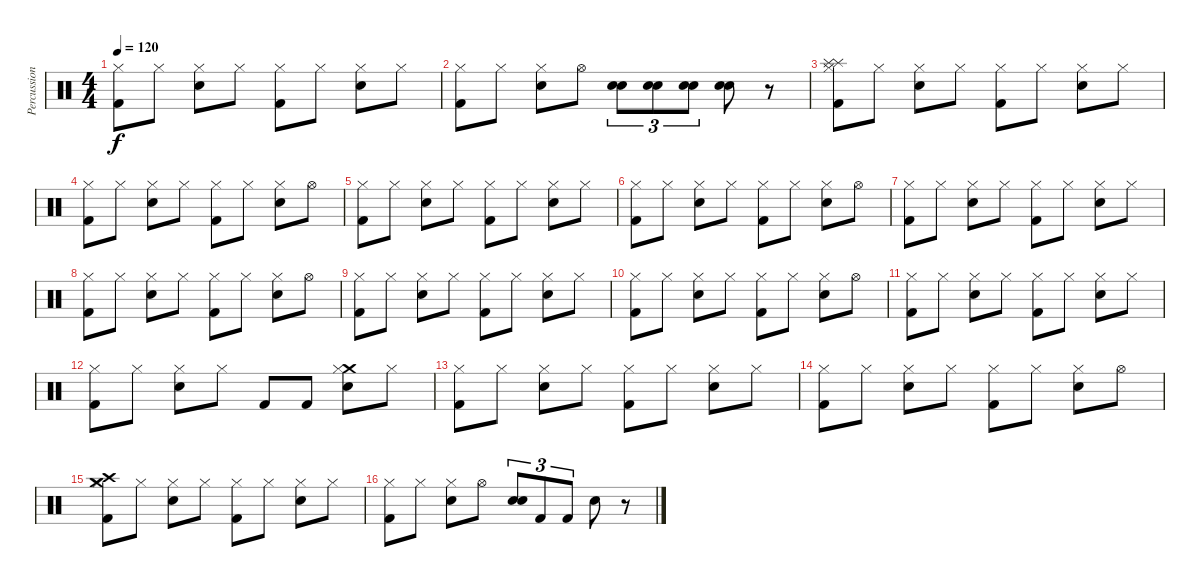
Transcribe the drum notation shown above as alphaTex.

\track ("Percussion" "Percussion") {instrument percussion}
\staff {score}
\articulation defaults
\ts (4 4)
\tempo 120
\clef neutral
\ks c
("Kick (hit) 2" "Hi-Hat (closed)").8{dy f} "Hi-Hat (closed)".8 ("Electric Snare (hit)" "Hi-Hat (closed)").8 "Hi-Hat (closed)".8 ("Kick (hit) 2" "Hi-Hat (closed)").8 "Hi-Hat (closed)".8 ("Electric Snare (hit)" "Hi-Hat (closed)").8 "Hi-Hat (closed)".8 |
("Kick (hit) 2" "Hi-Hat (closed)").8 "Hi-Hat (closed)".8 ("Electric Snare (hit)" "Hi-Hat (closed)").8 "Hi-Hat (open)".8 ("Electric Snare (hit)" "Electric Snare (hit)").8{tu (3 2)} ("Electric Snare (hit)" "Electric Snare (hit)").8{tu (3 2)} ("Electric Snare (hit)" "Electric Snare (hit)").8{tu (3 2)} ("Electric Snare (hit)" "Electric Snare (hit)").8 r.8 |
("Splash (hit)" "Splash (hit)" "Kick (hit) 2" "Hi-Hat (closed)").8 "Hi-Hat (closed)".8 ("Electric Snare (hit)" "Hi-Hat (closed)").8 "Hi-Hat (closed)".8 ("Kick (hit) 2" "Hi-Hat (closed)").8 "Hi-Hat (closed)".8 ("Electric Snare (hit)" "Hi-Hat (closed)").8 "Hi-Hat (closed)".8 |
("Kick (hit) 2" "Hi-Hat (closed)").8 "Hi-Hat (closed)".8 ("Electric Snare (hit)" "Hi-Hat (closed)").8 "Hi-Hat (closed)".8 ("Kick (hit) 2" "Hi-Hat (closed)").8 "Hi-Hat (closed)".8 ("Electric Snare (hit)" "Hi-Hat (closed)").8 "Hi-Hat (open)".8 |
("Kick (hit) 2" "Hi-Hat (closed)").8 "Hi-Hat (closed)".8 ("Electric Snare (hit)" "Hi-Hat (closed)").8 "Hi-Hat (closed)".8 ("Kick (hit) 2" "Hi-Hat (closed)").8 "Hi-Hat (closed)".8 ("Electric Snare (hit)" "Hi-Hat (closed)").8 "Hi-Hat (closed)".8 |
("Kick (hit) 2" "Hi-Hat (closed)").8 "Hi-Hat (closed)".8 ("Electric Snare (hit)" "Hi-Hat (closed)").8 "Hi-Hat (closed)".8 ("Kick (hit) 2" "Hi-Hat (closed)").8 "Hi-Hat (closed)".8 ("Electric Snare (hit)" "Hi-Hat (closed)").8 "Hi-Hat (open)".8 |
("Kick (hit) 2" "Hi-Hat (closed)").8 "Hi-Hat (closed)".8 ("Electric Snare (hit)" "Hi-Hat (closed)").8 "Hi-Hat (closed)".8 ("Kick (hit) 2" "Hi-Hat (closed)").8 "Hi-Hat (closed)".8 ("Electric Snare (hit)" "Hi-Hat (closed)").8 "Hi-Hat (closed)".8 |
("Kick (hit) 2" "Hi-Hat (closed)").8 "Hi-Hat (closed)".8 ("Electric Snare (hit)" "Hi-Hat (closed)").8 "Hi-Hat (closed)".8 ("Kick (hit) 2" "Hi-Hat (closed)").8 "Hi-Hat (closed)".8 ("Electric Snare (hit)" "Hi-Hat (closed)").8 "Hi-Hat (open)".8 |
("Kick (hit) 2" "Hi-Hat (closed)").8 "Hi-Hat (closed)".8 ("Electric Snare (hit)" "Hi-Hat (closed)").8 "Hi-Hat (closed)".8 ("Kick (hit) 2" "Hi-Hat (closed)").8 "Hi-Hat (closed)".8 ("Electric Snare (hit)" "Hi-Hat (closed)").8 "Hi-Hat (closed)".8 |
("Kick (hit) 2" "Hi-Hat (closed)").8 "Hi-Hat (closed)".8 ("Electric Snare (hit)" "Hi-Hat (closed)").8 "Hi-Hat (closed)".8 ("Kick (hit) 2" "Hi-Hat (closed)").8 "Hi-Hat (closed)".8 ("Electric Snare (hit)" "Hi-Hat (closed)").8 "Hi-Hat (open)".8 |
("Kick (hit) 2" "Hi-Hat (closed)").8 "Hi-Hat (closed)".8 ("Electric Snare (hit)" "Hi-Hat (closed)").8 "Hi-Hat (closed)".8 ("Kick (hit) 2" "Hi-Hat (closed)").8 "Hi-Hat (closed)".8 ("Electric Snare (hit)" "Hi-Hat (closed)").8 "Hi-Hat (closed)".8 |
("Kick (hit) 2" "Hi-Hat (closed)").8 "Hi-Hat (closed)".8 ("Electric Snare (hit)" "Hi-Hat (closed)").8 "Hi-Hat (closed)".8 "Kick (hit) 2".8 "Kick (hit) 2".8 ("Crash medium (hit)" "Electric Snare (hit)" "Hi-Hat (closed)").8 "Hi-Hat (closed)".8 |
("Kick (hit) 2" "Hi-Hat (closed)").8 "Hi-Hat (closed)".8 ("Electric Snare (hit)" "Hi-Hat (closed)").8 "Hi-Hat (closed)".8 ("Kick (hit) 2" "Hi-Hat (closed)").8 "Hi-Hat (closed)".8 ("Electric Snare (hit)" "Hi-Hat (closed)").8 "Hi-Hat (closed)".8 |
("Kick (hit) 2" "Hi-Hat (closed)").8 "Hi-Hat (closed)".8 ("Electric Snare (hit)" "Hi-Hat (closed)").8 "Hi-Hat (closed)".8 ("Kick (hit) 2" "Hi-Hat (closed)").8 "Hi-Hat (closed)".8 ("Electric Snare (hit)" "Hi-Hat (closed)").8 "Hi-Hat (open)".8 |
("Crash high (hit)" "Crash medium (hit)" "Kick (hit) 2" "Hi-Hat (closed)").8 "Hi-Hat (closed)".8 ("Electric Snare (hit)" "Hi-Hat (closed)").8 "Hi-Hat (closed)".8 ("Kick (hit) 2" "Hi-Hat (closed)").8 "Hi-Hat (closed)".8 ("Electric Snare (hit)" "Hi-Hat (closed)").8 "Hi-Hat (closed)".8 |
("Kick (hit) 2" "Hi-Hat (closed)").8 "Hi-Hat (closed)".8 ("Electric Snare (hit)" "Hi-Hat (closed)").8 "Hi-Hat (open)".8 ("Electric Snare (hit)" "Electric Snare (hit)").8{tu (3 2)} "Kick (hit) 2".8{tu (3 2)} "Kick (hit) 2".8{tu (3 2)} "Electric Snare (hit)".8 r.8
